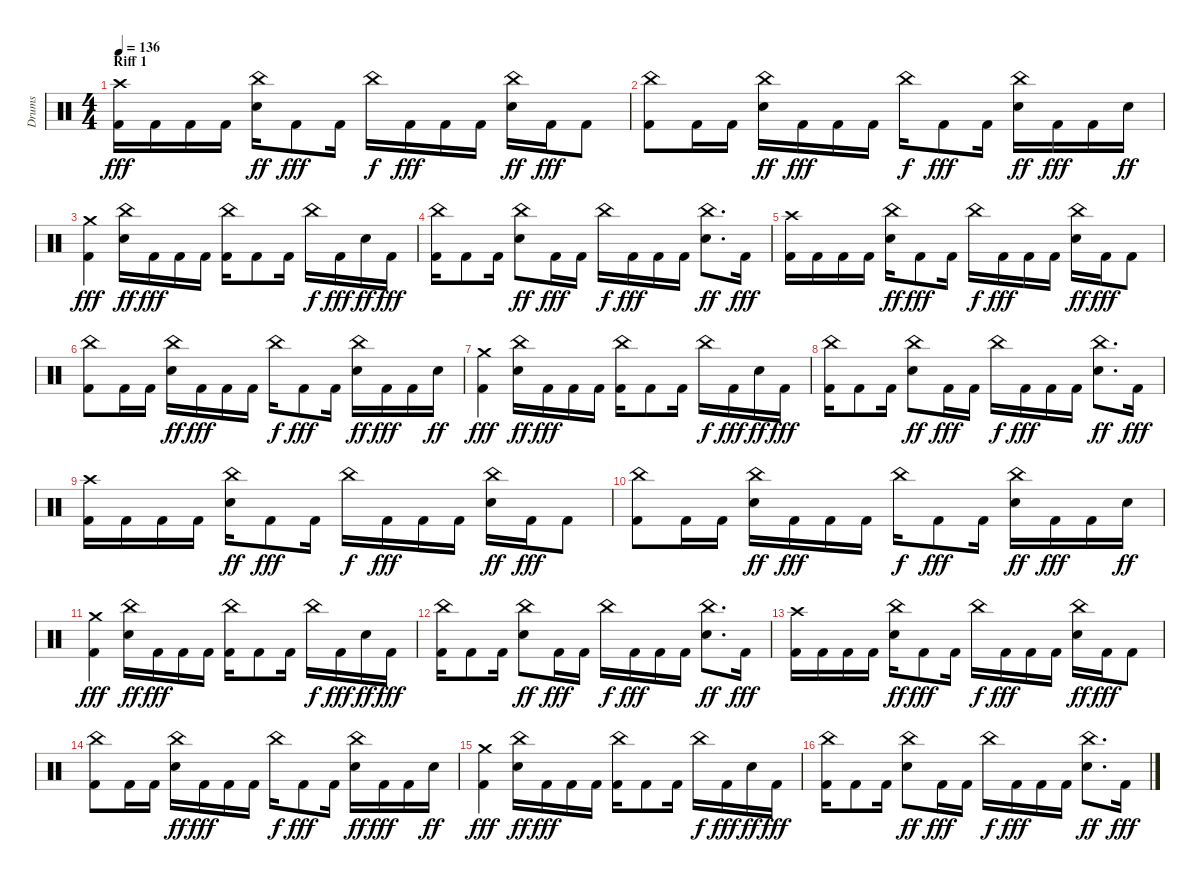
\track ("Drums" "Drums") {instrument percussion}
\staff {score}
\articulation defaults
\ts (4 4)
\section ("" "Riff 1")
\tempo 136
\clef neutral
\ks c
("Kick (hit) 2" "Crash high (hit)").16{dy fff} "Kick (hit) 2".16 "Kick (hit) 2".16 "Kick (hit) 2".16 ("Snare (hit) 2" "China (hit)").16{dy ff} "Kick (hit) 2".8{dy fff} "Kick (hit) 2".16 "China (hit)".16{dy f} "Kick (hit) 2".16{dy fff} "Kick (hit) 2".16 "Kick (hit) 2".16 ("Snare (hit) 2" "China (hit)").16{dy ff} "Kick (hit) 2".16{dy fff} "Kick (hit) 2".8 |
("Kick (hit) 2" "China (hit)").8 "Kick (hit) 2".16 "Kick (hit) 2".16 ("Snare (hit) 2" "China (hit)").16{dy ff} "Kick (hit) 2".16{dy fff} "Kick (hit) 2".16 "Kick (hit) 2".16 "China (hit)".16{dy f} "Kick (hit) 2".8{dy fff} "Kick (hit) 2".16 ("Snare (hit) 2" "China (hit)").16{dy ff} "Kick (hit) 2".16{dy fff} "Kick (hit) 2".16 "Snare (hit) 2".16{dy ff} |
("Kick (hit) 2" "Crash medium (hit)").4{dy fff} ("Snare (hit) 2" "China (hit)").16{dy ff} "Kick (hit) 2".16{dy fff} "Kick (hit) 2".16 "Kick (hit) 2".16 ("Kick (hit) 2" "China (hit)").16 "Kick (hit) 2".8 "Kick (hit) 2".16 "China (hit)".16{dy f} "Kick (hit) 2".16{dy fff} "Snare (hit) 2".16{dy ff} "Kick (hit) 2".16{dy fff} |
("Kick (hit) 2" "China (hit)").16 "Kick (hit) 2".8 "Kick (hit) 2".16 ("Snare (hit) 2" "China (hit)").8{dy ff} "Kick (hit) 2".16{dy fff} "Kick (hit) 2".16 "China (hit)".16{dy f} "Kick (hit) 2".16{dy fff} "Kick (hit) 2".16 "Kick (hit) 2".16 ("Snare (hit) 2" "China (hit)").8{d dy ff} "Kick (hit) 2".16{dy fff} |
("Kick (hit) 2" "Crash high (hit)").16 "Kick (hit) 2".16 "Kick (hit) 2".16 "Kick (hit) 2".16 ("Snare (hit) 2" "China (hit)").16{dy ff} "Kick (hit) 2".8{dy fff} "Kick (hit) 2".16 "China (hit)".16{dy f} "Kick (hit) 2".16{dy fff} "Kick (hit) 2".16 "Kick (hit) 2".16 ("Snare (hit) 2" "China (hit)").16{dy ff} "Kick (hit) 2".16{dy fff} "Kick (hit) 2".8 |
("Kick (hit) 2" "China (hit)").8 "Kick (hit) 2".16 "Kick (hit) 2".16 ("Snare (hit) 2" "China (hit)").16{dy ff} "Kick (hit) 2".16{dy fff} "Kick (hit) 2".16 "Kick (hit) 2".16 "China (hit)".16{dy f} "Kick (hit) 2".8{dy fff} "Kick (hit) 2".16 ("Snare (hit) 2" "China (hit)").16{dy ff} "Kick (hit) 2".16{dy fff} "Kick (hit) 2".16 "Snare (hit) 2".16{dy ff} |
("Kick (hit) 2" "Crash medium (hit)").4{dy fff} ("Snare (hit) 2" "China (hit)").16{dy ff} "Kick (hit) 2".16{dy fff} "Kick (hit) 2".16 "Kick (hit) 2".16 ("Kick (hit) 2" "China (hit)").16 "Kick (hit) 2".8 "Kick (hit) 2".16 "China (hit)".16{dy f} "Kick (hit) 2".16{dy fff} "Snare (hit) 2".16{dy ff} "Kick (hit) 2".16{dy fff} |
("Kick (hit) 2" "China (hit)").16 "Kick (hit) 2".8 "Kick (hit) 2".16 ("Snare (hit) 2" "China (hit)").8{dy ff} "Kick (hit) 2".16{dy fff} "Kick (hit) 2".16 "China (hit)".16{dy f} "Kick (hit) 2".16{dy fff} "Kick (hit) 2".16 "Kick (hit) 2".16 ("Snare (hit) 2" "China (hit)").8{d dy ff} "Kick (hit) 2".16{dy fff} |
("Kick (hit) 2" "Crash high (hit)").16 "Kick (hit) 2".16 "Kick (hit) 2".16 "Kick (hit) 2".16 ("Snare (hit) 2" "China (hit)").16{dy ff} "Kick (hit) 2".8{dy fff} "Kick (hit) 2".16 "China (hit)".16{dy f} "Kick (hit) 2".16{dy fff} "Kick (hit) 2".16 "Kick (hit) 2".16 ("Snare (hit) 2" "China (hit)").16{dy ff} "Kick (hit) 2".16{dy fff} "Kick (hit) 2".8 |
("Kick (hit) 2" "China (hit)").8 "Kick (hit) 2".16 "Kick (hit) 2".16 ("Snare (hit) 2" "China (hit)").16{dy ff} "Kick (hit) 2".16{dy fff} "Kick (hit) 2".16 "Kick (hit) 2".16 "China (hit)".16{dy f} "Kick (hit) 2".8{dy fff} "Kick (hit) 2".16 ("Snare (hit) 2" "China (hit)").16{dy ff} "Kick (hit) 2".16{dy fff} "Kick (hit) 2".16 "Snare (hit) 2".16{dy ff} |
("Kick (hit) 2" "Crash medium (hit)").4{dy fff} ("Snare (hit) 2" "China (hit)").16{dy ff} "Kick (hit) 2".16{dy fff} "Kick (hit) 2".16 "Kick (hit) 2".16 ("Kick (hit) 2" "China (hit)").16 "Kick (hit) 2".8 "Kick (hit) 2".16 "China (hit)".16{dy f} "Kick (hit) 2".16{dy fff} "Snare (hit) 2".16{dy ff} "Kick (hit) 2".16{dy fff} |
("Kick (hit) 2" "China (hit)").16 "Kick (hit) 2".8 "Kick (hit) 2".16 ("Snare (hit) 2" "China (hit)").8{dy ff} "Kick (hit) 2".16{dy fff} "Kick (hit) 2".16 "China (hit)".16{dy f} "Kick (hit) 2".16{dy fff} "Kick (hit) 2".16 "Kick (hit) 2".16 ("Snare (hit) 2" "China (hit)").8{d dy ff} "Kick (hit) 2".16{dy fff} |
("Kick (hit) 2" "Crash high (hit)").16 "Kick (hit) 2".16 "Kick (hit) 2".16 "Kick (hit) 2".16 ("Snare (hit) 2" "China (hit)").16{dy ff} "Kick (hit) 2".8{dy fff} "Kick (hit) 2".16 "China (hit)".16{dy f} "Kick (hit) 2".16{dy fff} "Kick (hit) 2".16 "Kick (hit) 2".16 ("Snare (hit) 2" "China (hit)").16{dy ff} "Kick (hit) 2".16{dy fff} "Kick (hit) 2".8 |
("Kick (hit) 2" "China (hit)").8 "Kick (hit) 2".16 "Kick (hit) 2".16 ("Snare (hit) 2" "China (hit)").16{dy ff} "Kick (hit) 2".16{dy fff} "Kick (hit) 2".16 "Kick (hit) 2".16 "China (hit)".16{dy f} "Kick (hit) 2".8{dy fff} "Kick (hit) 2".16 ("Snare (hit) 2" "China (hit)").16{dy ff} "Kick (hit) 2".16{dy fff} "Kick (hit) 2".16 "Snare (hit) 2".16{dy ff} |
("Kick (hit) 2" "Crash medium (hit)").4{dy fff} ("Snare (hit) 2" "China (hit)").16{dy ff} "Kick (hit) 2".16{dy fff} "Kick (hit) 2".16 "Kick (hit) 2".16 ("Kick (hit) 2" "China (hit)").16 "Kick (hit) 2".8 "Kick (hit) 2".16 "China (hit)".16{dy f} "Kick (hit) 2".16{dy fff} "Snare (hit) 2".16{dy ff} "Kick (hit) 2".16{dy fff} |
("Kick (hit) 2" "China (hit)").16 "Kick (hit) 2".8 "Kick (hit) 2".16 ("Snare (hit) 2" "China (hit)").8{dy ff} "Kick (hit) 2".16{dy fff} "Kick (hit) 2".16 "China (hit)".16{dy f} "Kick (hit) 2".16{dy fff} "Kick (hit) 2".16 "Kick (hit) 2".16 ("Snare (hit) 2" "China (hit)").8{d dy ff} "Kick (hit) 2".16{dy fff}
